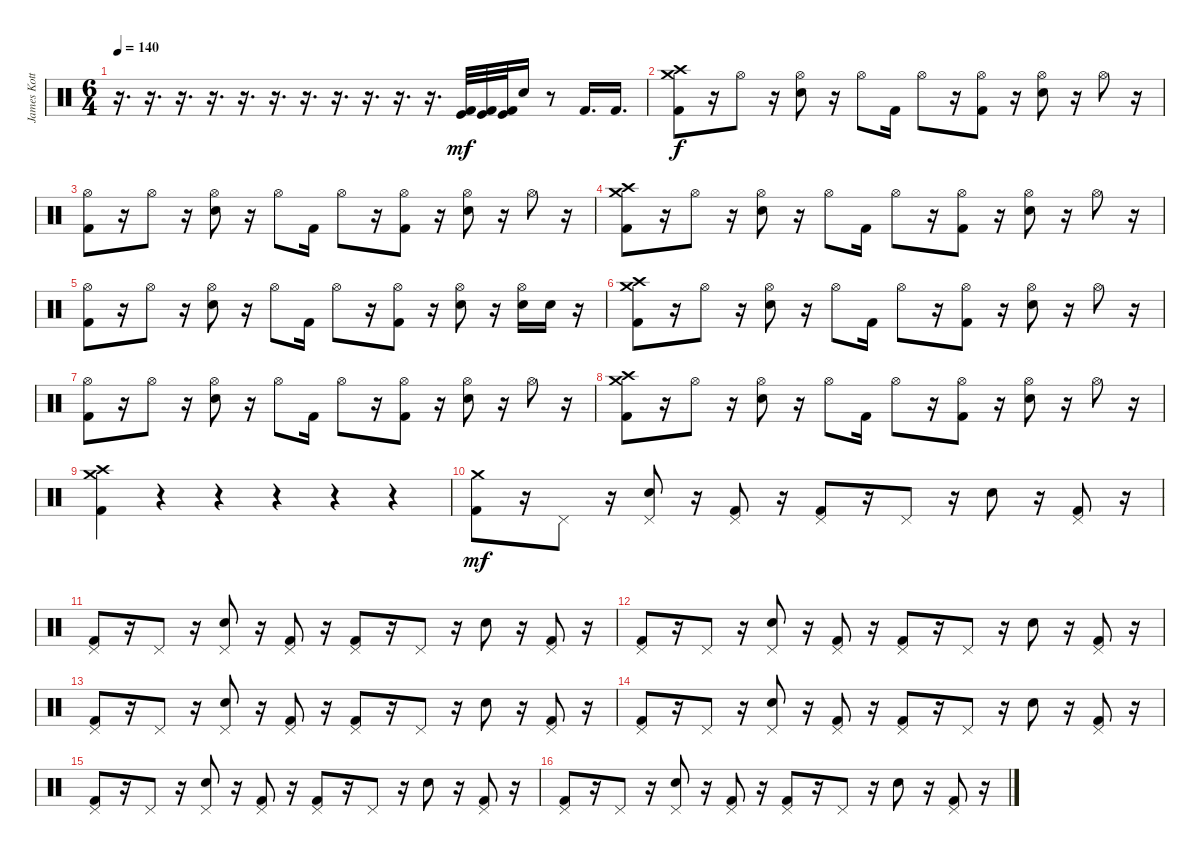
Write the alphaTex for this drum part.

\track ("James Kottak" "James Kott") {instrument percussion}
\staff {score}
\articulation defaults
\ts (6 4)
\tempo 140
\clef neutral
\ks c
r.16{d dy mf} r.16{d} r.16{d} r.16{d} r.16{d} r.16{d} r.16{d} r.16{d} r.16{d} r.16{d} r.16{d} ("Kick (hit) 2" "Kick (hit)").32 ("Kick (hit) 2" "Kick (hit)").32 ("Kick (hit) 2" "Kick (hit)").32 "Electric Snare (hit)".16 r.8 "Kick (hit) 2".16{d} "Kick (hit) 2".16{d} |
("Crash high (hit)" "Crash medium (hit)" "Kick (hit) 2").8{dy f} r.16 "Hi-Hat (open)".8 r.16 ("Hi-Hat (open)" "Electric Snare (hit)").8 r.16 "Hi-Hat (open)".8 "Kick (hit) 2".16 "Hi-Hat (open)".8 r.16 ("Hi-Hat (open)" "Kick (hit) 2").8 r.16 ("Hi-Hat (open)" "Electric Snare (hit)").8 r.16 "Hi-Hat (open)".8 r.16 |
("Hi-Hat (open)" "Kick (hit) 2").8 r.16 "Hi-Hat (open)".8 r.16 ("Hi-Hat (open)" "Electric Snare (hit)").8 r.16 "Hi-Hat (open)".8 "Kick (hit) 2".16 "Hi-Hat (open)".8 r.16 ("Hi-Hat (open)" "Kick (hit) 2").8 r.16 ("Hi-Hat (open)" "Electric Snare (hit)").8 r.16 "Hi-Hat (open)".8 r.16 |
("Crash high (hit)" "Crash medium (hit)" "Kick (hit) 2").8 r.16 "Hi-Hat (open)".8 r.16 ("Hi-Hat (open)" "Electric Snare (hit)").8 r.16 "Hi-Hat (open)".8 "Kick (hit) 2".16 "Hi-Hat (open)".8 r.16 ("Hi-Hat (open)" "Kick (hit) 2").8 r.16 ("Hi-Hat (open)" "Electric Snare (hit)").8 r.16 "Hi-Hat (open)".8 r.16 |
("Hi-Hat (open)" "Kick (hit) 2").8 r.16 "Hi-Hat (open)".8 r.16 ("Hi-Hat (open)" "Electric Snare (hit)").8 r.16 "Hi-Hat (open)".8 "Kick (hit) 2".16 "Hi-Hat (open)".8 r.16 ("Hi-Hat (open)" "Kick (hit) 2").8 r.16 ("Hi-Hat (open)" "Electric Snare (hit)").8 r.16 ("Hi-Hat (open)" "Electric Snare (hit)").16 "Electric Snare (hit)".16 r.16 |
("Crash high (hit)" "Crash medium (hit)" "Kick (hit) 2").8 r.16 "Hi-Hat (open)".8 r.16 ("Hi-Hat (open)" "Electric Snare (hit)").8 r.16 "Hi-Hat (open)".8 "Kick (hit) 2".16 "Hi-Hat (open)".8 r.16 ("Hi-Hat (open)" "Kick (hit) 2").8 r.16 ("Hi-Hat (open)" "Electric Snare (hit)").8 r.16 "Hi-Hat (open)".8 r.16 |
("Hi-Hat (open)" "Kick (hit) 2").8 r.16 "Hi-Hat (open)".8 r.16 ("Hi-Hat (open)" "Electric Snare (hit)").8 r.16 "Hi-Hat (open)".8 "Kick (hit) 2".16 "Hi-Hat (open)".8 r.16 ("Hi-Hat (open)" "Kick (hit) 2").8 r.16 ("Hi-Hat (open)" "Electric Snare (hit)").8 r.16 "Hi-Hat (open)".8 r.16 |
("Crash high (hit)" "Crash medium (hit)" "Kick (hit) 2").8 r.16 "Hi-Hat (open)".8 r.16 ("Hi-Hat (open)" "Electric Snare (hit)").8 r.16 "Hi-Hat (open)".8 "Kick (hit) 2".16 "Hi-Hat (open)".8 r.16 ("Hi-Hat (open)" "Kick (hit) 2").8 r.16 ("Hi-Hat (open)" "Electric Snare (hit)").8 r.16 "Hi-Hat (open)".8 r.16 |
("Crash high (hit)" "Crash medium (hit)" "Kick (hit) 2").4 r.4 r.4 r.4 r.4 r.4 |
("Crash medium (hit)" "Kick (hit) 2").8{dy mf} r.16 "Pedal Hi-Hat (hit)".8 r.16 ("Pedal Hi-Hat (hit)" "Electric Snare (hit)").8 r.16 ("Pedal Hi-Hat (hit)" "Kick (hit) 2").8 r.16 ("Pedal Hi-Hat (hit)" "Kick (hit) 2").8 r.16 "Pedal Hi-Hat (hit)".8 r.16 "Electric Snare (hit)".8 r.16 ("Pedal Hi-Hat (hit)" "Kick (hit) 2").8 r.16 |
("Pedal Hi-Hat (hit)" "Kick (hit) 2").8 r.16 "Pedal Hi-Hat (hit)".8 r.16 ("Pedal Hi-Hat (hit)" "Electric Snare (hit)").8 r.16 ("Pedal Hi-Hat (hit)" "Kick (hit) 2").8 r.16 ("Pedal Hi-Hat (hit)" "Kick (hit) 2").8 r.16 "Pedal Hi-Hat (hit)".8 r.16 "Electric Snare (hit)".8 r.16 ("Pedal Hi-Hat (hit)" "Kick (hit) 2").8 r.16 |
("Pedal Hi-Hat (hit)" "Kick (hit) 2").8 r.16 "Pedal Hi-Hat (hit)".8 r.16 ("Pedal Hi-Hat (hit)" "Electric Snare (hit)").8 r.16 ("Pedal Hi-Hat (hit)" "Kick (hit) 2").8 r.16 ("Pedal Hi-Hat (hit)" "Kick (hit) 2").8 r.16 "Pedal Hi-Hat (hit)".8 r.16 "Electric Snare (hit)".8 r.16 ("Pedal Hi-Hat (hit)" "Kick (hit) 2").8 r.16 |
("Pedal Hi-Hat (hit)" "Kick (hit) 2").8 r.16 "Pedal Hi-Hat (hit)".8 r.16 ("Pedal Hi-Hat (hit)" "Electric Snare (hit)").8 r.16 ("Pedal Hi-Hat (hit)" "Kick (hit) 2").8 r.16 ("Pedal Hi-Hat (hit)" "Kick (hit) 2").8 r.16 "Pedal Hi-Hat (hit)".8 r.16 "Electric Snare (hit)".8 r.16 ("Pedal Hi-Hat (hit)" "Kick (hit) 2").8 r.16 |
("Pedal Hi-Hat (hit)" "Kick (hit) 2").8 r.16 "Pedal Hi-Hat (hit)".8 r.16 ("Pedal Hi-Hat (hit)" "Electric Snare (hit)").8 r.16 ("Pedal Hi-Hat (hit)" "Kick (hit) 2").8 r.16 ("Pedal Hi-Hat (hit)" "Kick (hit) 2").8 r.16 "Pedal Hi-Hat (hit)".8 r.16 "Electric Snare (hit)".8 r.16 ("Pedal Hi-Hat (hit)" "Kick (hit) 2").8 r.16 |
("Pedal Hi-Hat (hit)" "Kick (hit) 2").8 r.16 "Pedal Hi-Hat (hit)".8 r.16 ("Pedal Hi-Hat (hit)" "Electric Snare (hit)").8 r.16 ("Pedal Hi-Hat (hit)" "Kick (hit) 2").8 r.16 ("Pedal Hi-Hat (hit)" "Kick (hit) 2").8 r.16 "Pedal Hi-Hat (hit)".8 r.16 "Electric Snare (hit)".8 r.16 ("Pedal Hi-Hat (hit)" "Kick (hit) 2").8 r.16 |
("Pedal Hi-Hat (hit)" "Kick (hit) 2").8 r.16 "Pedal Hi-Hat (hit)".8 r.16 ("Pedal Hi-Hat (hit)" "Electric Snare (hit)").8 r.16 ("Pedal Hi-Hat (hit)" "Kick (hit) 2").8 r.16 ("Pedal Hi-Hat (hit)" "Kick (hit) 2").8 r.16 "Pedal Hi-Hat (hit)".8 r.16 "Electric Snare (hit)".8 r.16 ("Pedal Hi-Hat (hit)" "Kick (hit) 2").8 r.16
